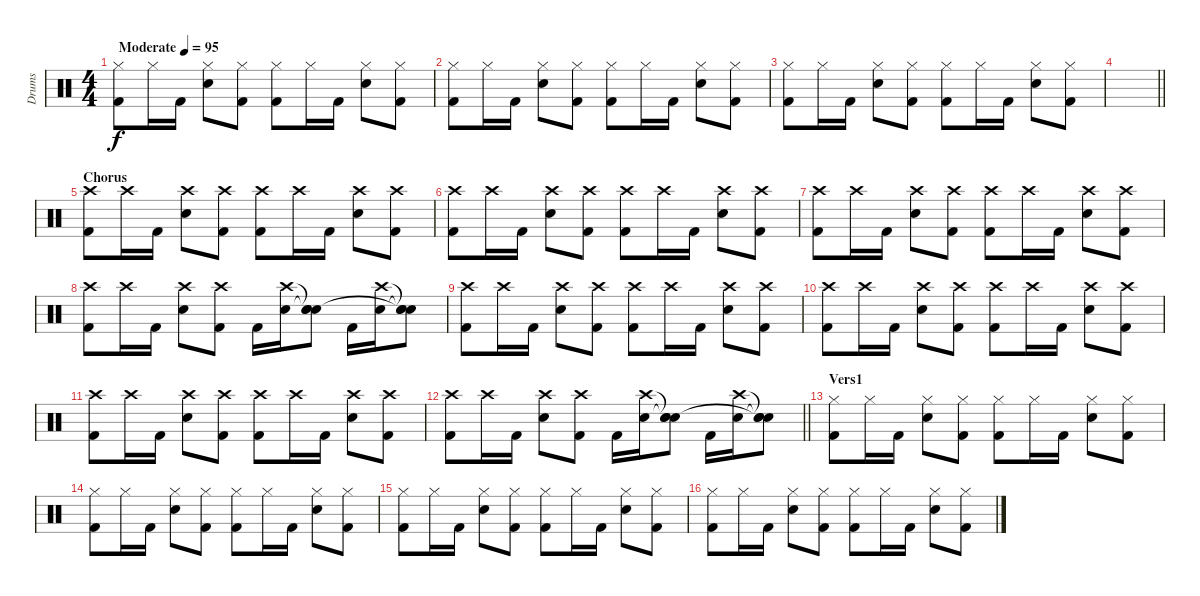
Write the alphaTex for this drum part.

\track ("Drums" "Drums") {instrument percussion}
\staff {score}
\articulation defaults
\ts (4 4)
\tempo (95 "Moderate")
\clef neutral
\ks c
("Hi-Hat (closed)" "Kick (hit) 2").8{dy f} "Hi-Hat (closed)".16 "Kick (hit) 2".16 ("Hi-Hat (closed)" "Snare (hit) 2").8 ("Hi-Hat (closed)" "Kick (hit) 2").8 ("Hi-Hat (closed)" "Kick (hit) 2").8 "Hi-Hat (closed)".16 "Kick (hit) 2".16 ("Hi-Hat (closed)" "Snare (hit) 2").8 ("Hi-Hat (closed)" "Kick (hit) 2").8 |
("Hi-Hat (closed)" "Kick (hit) 2").8 "Hi-Hat (closed)".16 "Kick (hit) 2".16 ("Hi-Hat (closed)" "Snare (hit) 2").8 ("Hi-Hat (closed)" "Kick (hit) 2").8 ("Hi-Hat (closed)" "Kick (hit) 2").8 "Hi-Hat (closed)".16 "Kick (hit) 2".16 ("Hi-Hat (closed)" "Snare (hit) 2").8 ("Hi-Hat (closed)" "Kick (hit) 2").8 |
("Hi-Hat (closed)" "Kick (hit) 2").8 "Hi-Hat (closed)".16 "Kick (hit) 2".16 ("Hi-Hat (closed)" "Snare (hit) 2").8 ("Hi-Hat (closed)" "Kick (hit) 2").8 ("Hi-Hat (closed)" "Kick (hit) 2").8 "Hi-Hat (closed)".16 "Kick (hit) 2".16 ("Hi-Hat (closed)" "Snare (hit) 2").8 ("Hi-Hat (closed)" "Kick (hit) 2").8 |
\barLineRight lightlight
|
\section ("" "Chorus")
("Crash high (hit)" "Kick (hit) 2").8 "Crash high (hit)".16 "Kick (hit) 2".16 ("Crash high (hit)" "Snare (hit) 2").8 ("Crash high (hit)" "Kick (hit) 2").8 ("Crash high (hit)" "Kick (hit) 2").8 "Crash high (hit)".16 "Kick (hit) 2".16 ("Crash high (hit)" "Snare (hit) 2").8 ("Crash high (hit)" "Kick (hit) 2").8 |
("Crash high (hit)" "Kick (hit) 2").8 "Crash high (hit)".16 "Kick (hit) 2".16 ("Crash high (hit)" "Snare (hit) 2").8 ("Crash high (hit)" "Kick (hit) 2").8 ("Crash high (hit)" "Kick (hit) 2").8 "Crash high (hit)".16 "Kick (hit) 2".16 ("Crash high (hit)" "Snare (hit) 2").8 ("Crash high (hit)" "Kick (hit) 2").8 |
("Crash high (hit)" "Kick (hit) 2").8 "Crash high (hit)".16 "Kick (hit) 2".16 ("Crash high (hit)" "Snare (hit) 2").8 ("Crash high (hit)" "Kick (hit) 2").8 ("Crash high (hit)" "Kick (hit) 2").8 "Crash high (hit)".16 "Kick (hit) 2".16 ("Crash high (hit)" "Snare (hit) 2").8 ("Crash high (hit)" "Kick (hit) 2").8 |
("Crash high (hit)" "Kick (hit) 2").8 "Crash high (hit)".16 "Kick (hit) 2".16 ("Crash high (hit)" "Snare (hit) 2").8 ("Crash high (hit)" "Kick (hit) 2").8 "Kick (hit) 2".16 ("Crash high (hit)" "Snare (hit) 2").16 ("Snare (hit)"{t} "Snare (hit)"{t} "Snare (hit)").8 "Kick (hit) 2".16 ("Crash high (hit)" "Snare (hit) 2").16 ("Snare (hit)"{t} "Snare (hit)"{t} "Snare (hit)"{t}).8 |
("Crash high (hit)" "Kick (hit) 2").8 "Crash high (hit)".16 "Kick (hit) 2".16 ("Crash high (hit)" "Snare (hit) 2").8 ("Crash high (hit)" "Kick (hit) 2").8 ("Crash high (hit)" "Kick (hit) 2").8 "Crash high (hit)".16 "Kick (hit) 2".16 ("Crash high (hit)" "Snare (hit) 2").8 ("Crash high (hit)" "Kick (hit) 2").8 |
("Crash high (hit)" "Kick (hit) 2").8 "Crash high (hit)".16 "Kick (hit) 2".16 ("Crash high (hit)" "Snare (hit) 2").8 ("Crash high (hit)" "Kick (hit) 2").8 ("Crash high (hit)" "Kick (hit) 2").8 "Crash high (hit)".16 "Kick (hit) 2".16 ("Crash high (hit)" "Snare (hit) 2").8 ("Crash high (hit)" "Kick (hit) 2").8 |
("Crash high (hit)" "Kick (hit) 2").8 "Crash high (hit)".16 "Kick (hit) 2".16 ("Crash high (hit)" "Snare (hit) 2").8 ("Crash high (hit)" "Kick (hit) 2").8 ("Crash high (hit)" "Kick (hit) 2").8 "Crash high (hit)".16 "Kick (hit) 2".16 ("Crash high (hit)" "Snare (hit) 2").8 ("Crash high (hit)" "Kick (hit) 2").8 |
\barLineRight lightlight
("Crash high (hit)" "Kick (hit) 2").8 "Crash high (hit)".16 "Kick (hit) 2".16 ("Crash high (hit)" "Snare (hit) 2").8 ("Crash high (hit)" "Kick (hit) 2").8 "Kick (hit) 2".16 ("Crash high (hit)" "Snare (hit) 2").16 ("Snare (hit)"{t} "Snare (hit)"{t} "Snare (hit)").8 "Kick (hit) 2".16 ("Crash high (hit)" "Snare (hit) 2").16 ("Snare (hit)"{t} "Snare (hit)"{t} "Snare (hit)"{t}).8 |
\section ("" "Vers1")
("Hi-Hat (closed)" "Kick (hit) 2").8 "Hi-Hat (closed)".16 "Kick (hit) 2".16 ("Hi-Hat (closed)" "Snare (hit) 2").8 ("Hi-Hat (closed)" "Kick (hit) 2").8 ("Hi-Hat (closed)" "Kick (hit) 2").8 "Hi-Hat (closed)".16 "Kick (hit) 2".16 ("Hi-Hat (closed)" "Snare (hit) 2").8 ("Hi-Hat (closed)" "Kick (hit) 2").8 |
("Hi-Hat (closed)" "Kick (hit) 2").8 "Hi-Hat (closed)".16 "Kick (hit) 2".16 ("Hi-Hat (closed)" "Snare (hit) 2").8 ("Hi-Hat (closed)" "Kick (hit) 2").8 ("Hi-Hat (closed)" "Kick (hit) 2").8 "Hi-Hat (closed)".16 "Kick (hit) 2".16 ("Hi-Hat (closed)" "Snare (hit) 2").8 ("Hi-Hat (closed)" "Kick (hit) 2").8 |
("Hi-Hat (closed)" "Kick (hit) 2").8 "Hi-Hat (closed)".16 "Kick (hit) 2".16 ("Hi-Hat (closed)" "Snare (hit) 2").8 ("Hi-Hat (closed)" "Kick (hit) 2").8 ("Hi-Hat (closed)" "Kick (hit) 2").8 "Hi-Hat (closed)".16 "Kick (hit) 2".16 ("Hi-Hat (closed)" "Snare (hit) 2").8 ("Hi-Hat (closed)" "Kick (hit) 2").8 |
("Hi-Hat (closed)" "Kick (hit) 2").8 "Hi-Hat (closed)".16 "Kick (hit) 2".16 ("Hi-Hat (closed)" "Snare (hit) 2").8 ("Hi-Hat (closed)" "Kick (hit) 2").8 ("Hi-Hat (closed)" "Kick (hit) 2").8 "Hi-Hat (closed)".16 "Kick (hit) 2".16 ("Hi-Hat (closed)" "Snare (hit) 2").8 ("Hi-Hat (closed)" "Kick (hit) 2").8
